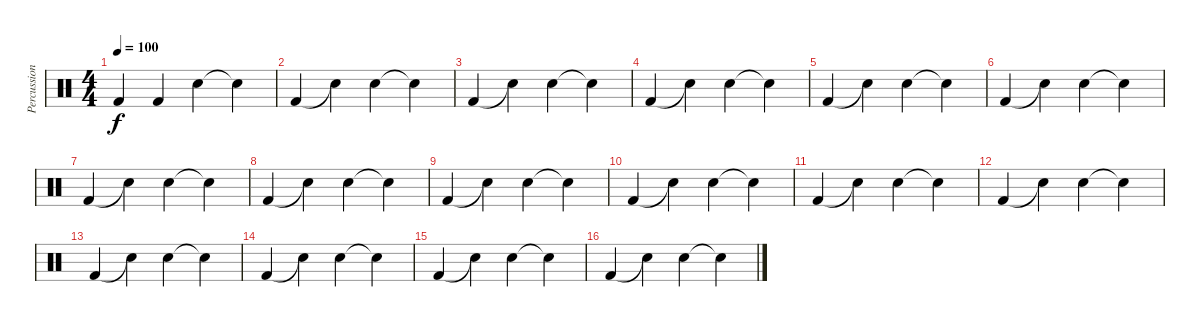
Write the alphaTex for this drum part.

\track ("Percussioni" "Percussion") {instrument percussion}
\staff {score}
\articulation defaults
\ts (4 4)
\tempo 100
\clef neutral
\ks c "Kick (hit) 2".4{dy f} "Kick (hit) 2".4 "Snare (hit) 2".4 "Snare (hit)"{t}.4
|
"Kick (hit) 2".4 "Snare (hit)"{t}.4 "Snare (hit) 2".4 "Snare (hit)"{t}.4 |
"Kick (hit) 2".4 "Snare (hit)"{t}.4 "Snare (hit) 2".4 "Snare (hit)"{t}.4 |
"Kick (hit) 2".4 "Snare (hit)"{t}.4 "Snare (hit) 2".4 "Snare (hit)"{t}.4 |
"Kick (hit) 2".4 "Snare (hit)"{t}.4 "Snare (hit) 2".4 "Snare (hit)"{t}.4 |
"Kick (hit) 2".4 "Snare (hit)"{t}.4 "Snare (hit) 2".4 "Snare (hit)"{t}.4 |
"Kick (hit) 2".4 "Snare (hit)"{t}.4 "Snare (hit) 2".4 "Snare (hit)"{t}.4 |
"Kick (hit) 2".4 "Snare (hit)"{t}.4 "Snare (hit) 2".4 "Snare (hit)"{t}.4 |
"Kick (hit) 2".4 "Snare (hit)"{t}.4 "Snare (hit) 2".4 "Snare (hit)"{t}.4 |
"Kick (hit) 2".4 "Snare (hit)"{t}.4 "Snare (hit) 2".4 "Snare (hit)"{t}.4 |
"Kick (hit) 2".4 "Snare (hit)"{t}.4 "Snare (hit) 2".4 "Snare (hit)"{t}.4 |
"Kick (hit) 2".4 "Snare (hit)"{t}.4 "Snare (hit) 2".4 "Snare (hit)"{t}.4 |
"Kick (hit) 2".4 "Snare (hit)"{t}.4 "Snare (hit) 2".4 "Snare (hit)"{t}.4 |
"Kick (hit) 2".4 "Snare (hit)"{t}.4 "Snare (hit) 2".4 "Snare (hit)"{t}.4 |
"Kick (hit) 2".4 "Snare (hit)"{t}.4 "Snare (hit) 2".4 "Snare (hit)"{t}.4 |
"Kick (hit) 2".4 "Snare (hit)"{t}.4 "Snare (hit) 2".4 "Snare (hit)"{t}.4
